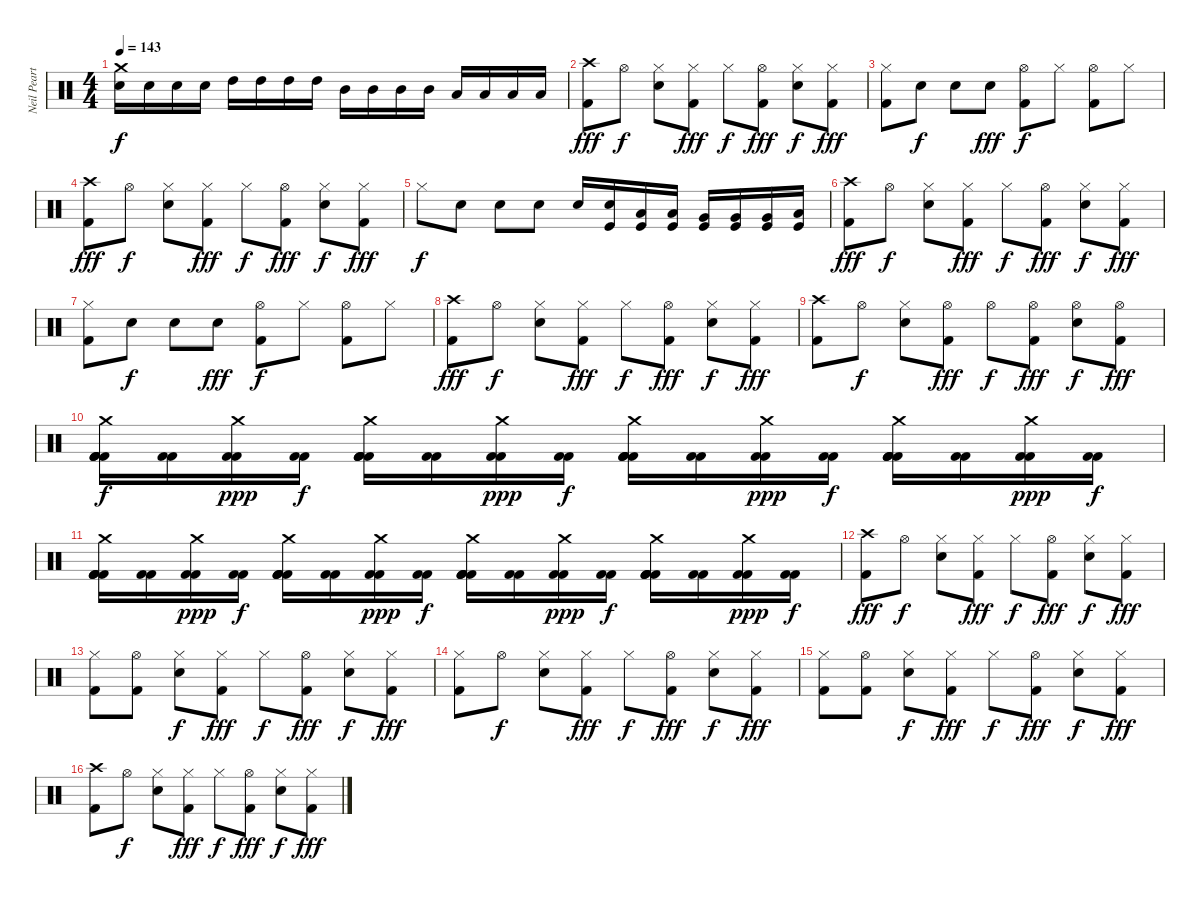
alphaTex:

\track ("Neil Peart" "Neil Peart") {instrument percussion}
\staff {score}
\articulation defaults
\ts (4 4)
\tempo 143
\clef neutral
\ks c
("Electric Snare (hit)" "Crash medium (hit)").16{dy f} "Electric Snare (hit)".16 "Electric Snare (hit)".16 "Electric Snare (hit)".16 "High Tom (hit)".16 "High Tom (hit)".16 "High Tom (hit)".16 "High Tom (hit)".16 "Mid Tom (hit)".16 "Mid Tom (hit)".16 "Mid Tom (hit)".16 "Mid Tom (hit)".16 "Low Tom (hit)".16 "Low Tom (hit)".16 "Low Tom (hit)".16 "Low Tom (hit)".16 |
("Kick (hit) 2" "Crash high (hit)").8{dy fff} "Hi-Hat (open)".8{dy f} ("Electric Snare (hit)" "Hi-Hat (closed)").8 ("Kick (hit) 2" "Hi-Hat (closed)").8{dy fff} "Hi-Hat (closed)".8{dy f} ("Kick (hit) 2" "Hi-Hat (open)").8{dy fff} ("Electric Snare (hit)" "Hi-Hat (closed)").8{dy f} ("Kick (hit) 2" "Hi-Hat (closed)").8{dy fff} |
("Kick (hit) 2" "Hi-Hat (closed)").8 "Electric Snare (hit)".8{dy f} "Electric Snare (hit)".8 "Electric Snare (hit)".8{dy fff} ("Kick (hit) 2" "Hi-Hat (open)").8{dy f} "Hi-Hat (closed)".8 ("Kick (hit) 2" "Hi-Hat (open)").8 "Hi-Hat (closed)".8 |
("Kick (hit) 2" "Crash high (hit)").8{dy fff} "Hi-Hat (open)".8{dy f} ("Electric Snare (hit)" "Hi-Hat (closed)").8 ("Kick (hit) 2" "Hi-Hat (closed)").8{dy fff} "Hi-Hat (closed)".8{dy f} ("Kick (hit) 2" "Hi-Hat (open)").8{dy fff} ("Electric Snare (hit)" "Hi-Hat (closed)").8{dy f} ("Kick (hit) 2" "Hi-Hat (closed)").8{dy fff} |
"Hi-Hat (closed)".8{dy f} "Electric Snare (hit)".8 "Electric Snare (hit)".8 "Electric Snare (hit)".8 "Electric Snare (hit)".16 ("Electric Snare (hit)" "Kick (hit)").16 ("Low Tom (hit)" "Kick (hit)").16 ("Low Tom (hit)" "Kick (hit)").16 ("Very Low Tom (hit)" "Kick (hit)").16 ("Very Low Tom (hit)" "Kick (hit)").16 ("Very Low Tom (hit)" "Kick (hit)").16 ("Low Floor Tom (hit)" "Kick (hit)").16 |
("Kick (hit) 2" "Crash high (hit)").8{dy fff} "Hi-Hat (open)".8{dy f} ("Electric Snare (hit)" "Hi-Hat (closed)").8 ("Kick (hit) 2" "Hi-Hat (closed)").8{dy fff} "Hi-Hat (closed)".8{dy f} ("Kick (hit) 2" "Hi-Hat (open)").8{dy fff} ("Electric Snare (hit)" "Hi-Hat (closed)").8{dy f} ("Kick (hit) 2" "Hi-Hat (closed)").8{dy fff} |
("Kick (hit) 2" "Hi-Hat (closed)").8 "Electric Snare (hit)".8{dy f} "Electric Snare (hit)".8 "Electric Snare (hit)".8{dy fff} ("Kick (hit) 2" "Hi-Hat (open)").8{dy f} "Hi-Hat (closed)".8 ("Kick (hit) 2" "Hi-Hat (open)").8 "Hi-Hat (closed)".8 |
("Kick (hit) 2" "Crash high (hit)").8{dy fff} "Hi-Hat (open)".8{dy f} ("Electric Snare (hit)" "Hi-Hat (closed)").8 ("Kick (hit) 2" "Hi-Hat (closed)").8{dy fff} "Hi-Hat (closed)".8{dy f} ("Kick (hit) 2" "Hi-Hat (open)").8{dy fff} ("Electric Snare (hit)" "Hi-Hat (closed)").8{dy f} ("Kick (hit) 2" "Hi-Hat (closed)").8{dy fff} |
("Kick (hit) 2" "Crash high (hit)").8 "Hi-Hat (open)".8{dy f} ("Electric Snare (hit)" "Hi-Hat (closed)").8 ("Kick (hit) 2" "Hi-Hat (open)").8{dy fff} "Hi-Hat (open)".8{dy f} ("Kick (hit) 2" "Hi-Hat (open)").8{dy fff} ("Electric Snare (hit)" "Hi-Hat (open)").8{dy f} ("Kick (hit) 2" "Hi-Hat (open)").8{dy fff} |
("Kick (hit) 2" "Kick (hit) 2" "Crash medium (hit)" "Kick (hit) 2" "Kick (hit) 2").16{dy f} ("Kick (hit) 2" "Kick (hit) 2").16 ("Kick (hit) 2" "Kick (hit) 2" "Crash medium (hit)").16{dy ppp} ("Kick (hit) 2" "Kick (hit) 2").16{dy f} ("Kick (hit) 2" "Kick (hit) 2" "Crash medium (hit)" "Kick (hit) 2" "Kick (hit) 2").16 ("Kick (hit) 2" "Kick (hit) 2").16 ("Kick (hit) 2" "Kick (hit) 2" "Crash medium (hit)").16{dy ppp} ("Kick (hit) 2" "Kick (hit) 2").16{dy f} ("Kick (hit) 2" "Kick (hit) 2" "Crash medium (hit)" "Kick (hit) 2" "Kick (hit) 2").16 ("Kick (hit) 2" "Kick (hit) 2").16 ("Kick (hit) 2" "Kick (hit) 2" "Crash medium (hit)").16{dy ppp} ("Kick (hit) 2" "Kick (hit) 2").16{dy f} ("Kick (hit) 2" "Kick (hit) 2" "Crash medium (hit)" "Kick (hit) 2" "Kick (hit) 2").16 ("Kick (hit) 2" "Kick (hit) 2").16 ("Kick (hit) 2" "Kick (hit) 2" "Crash medium (hit)").16{dy ppp} ("Kick (hit) 2" "Kick (hit) 2").16{dy f} |
("Kick (hit) 2" "Kick (hit) 2" "Crash medium (hit)" "Kick (hit) 2" "Kick (hit) 2").16 ("Kick (hit) 2" "Kick (hit) 2").16 ("Kick (hit) 2" "Kick (hit) 2" "Crash medium (hit)").16{dy ppp} ("Kick (hit) 2" "Kick (hit) 2").16{dy f} ("Kick (hit) 2" "Kick (hit) 2" "Crash medium (hit)" "Kick (hit) 2" "Kick (hit) 2").16 ("Kick (hit) 2" "Kick (hit) 2").16 ("Kick (hit) 2" "Kick (hit) 2" "Crash medium (hit)").16{dy ppp} ("Kick (hit) 2" "Kick (hit) 2").16{dy f} ("Kick (hit) 2" "Kick (hit) 2" "Crash medium (hit)" "Kick (hit) 2" "Kick (hit) 2").16 ("Kick (hit) 2" "Kick (hit) 2").16 ("Kick (hit) 2" "Kick (hit) 2" "Crash medium (hit)").16{dy ppp} ("Kick (hit) 2" "Kick (hit) 2").16{dy f} ("Kick (hit) 2" "Kick (hit) 2" "Crash medium (hit)" "Kick (hit) 2" "Kick (hit) 2").16 ("Kick (hit) 2" "Kick (hit) 2").16 ("Kick (hit) 2" "Kick (hit) 2" "Crash medium (hit)").16{dy ppp} ("Kick (hit) 2" "Kick (hit) 2").16{dy f} |
("Kick (hit) 2" "Crash high (hit)").8{dy fff} "Hi-Hat (open)".8{dy f} ("Electric Snare (hit)" "Hi-Hat (closed)").8 ("Kick (hit) 2" "Hi-Hat (closed)").8{dy fff} "Hi-Hat (closed)".8{dy f} ("Kick (hit) 2" "Hi-Hat (open)").8{dy fff} ("Electric Snare (hit)" "Hi-Hat (closed)").8{dy f} ("Kick (hit) 2" "Hi-Hat (closed)").8{dy fff} |
("Kick (hit) 2" "Hi-Hat (closed)").8 ("Kick (hit) 2" "Hi-Hat (open)").8 ("Electric Snare (hit)" "Hi-Hat (closed)").8{dy f} ("Kick (hit) 2" "Hi-Hat (closed)").8{dy fff} "Hi-Hat (closed)".8{dy f} ("Kick (hit) 2" "Hi-Hat (open)").8{dy fff} ("Electric Snare (hit)" "Hi-Hat (closed)").8{dy f} ("Kick (hit) 2" "Hi-Hat (closed)").8{dy fff} |
("Kick (hit) 2" "Hi-Hat (closed)").8 "Hi-Hat (open)".8{dy f} ("Electric Snare (hit)" "Hi-Hat (closed)").8 ("Kick (hit) 2" "Hi-Hat (closed)").8{dy fff} "Hi-Hat (closed)".8{dy f} ("Kick (hit) 2" "Hi-Hat (open)").8{dy fff} ("Electric Snare (hit)" "Hi-Hat (closed)").8{dy f} ("Kick (hit) 2" "Hi-Hat (closed)").8{dy fff} |
("Kick (hit) 2" "Hi-Hat (closed)").8 ("Kick (hit) 2" "Hi-Hat (open)").8 ("Electric Snare (hit)" "Hi-Hat (closed)").8{dy f} ("Kick (hit) 2" "Hi-Hat (closed)").8{dy fff} "Hi-Hat (closed)".8{dy f} ("Kick (hit) 2" "Hi-Hat (open)").8{dy fff} ("Electric Snare (hit)" "Hi-Hat (closed)").8{dy f} ("Kick (hit) 2" "Hi-Hat (closed)").8{dy fff} |
("Kick (hit) 2" "Crash high (hit)").8 "Hi-Hat (open)".8{dy f} ("Electric Snare (hit)" "Hi-Hat (closed)").8 ("Kick (hit) 2" "Hi-Hat (closed)").8{dy fff} "Hi-Hat (closed)".8{dy f} ("Kick (hit) 2" "Hi-Hat (open)").8{dy fff} ("Electric Snare (hit)" "Hi-Hat (closed)").8{dy f} ("Kick (hit) 2" "Hi-Hat (closed)").8{dy fff}
